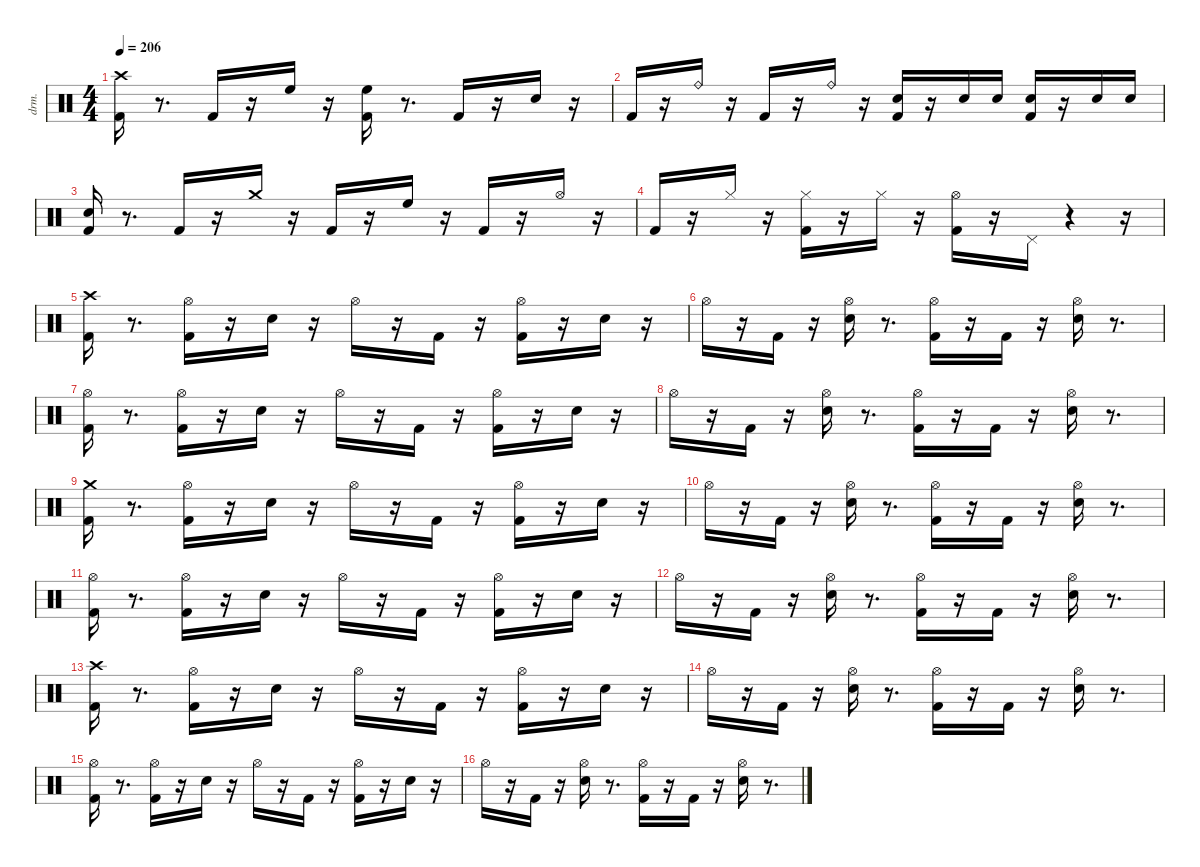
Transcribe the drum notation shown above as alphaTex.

\defaultSystemsLayout 4
\hideDynamics
\bracketExtendMode nobrackets
\otherSystemsTrackNameOrientation horizontal
\track ("EZdrummer 3" "drm.") {instrument percussion}
\staff {score}
\articulation defaults
\ts (4 4)
\tempo 206
\clef neutral
\ks aminor
("Kick (hit) 2" "Crash high (hit)"{acc #}).16{dy fff beam Down} r.8{d beam Down} "Kick (hit) 2".16{dy f beam Up} r.16{beam Up} "High Floor Tom (hit)".16{dy mp beam Down} r.16{beam Down} ("Kick (hit) 2" "High Floor Tom (hit)").16{dy fff beam Down} r.8{d beam Down} "Kick (hit) 2".16{dy f beam Up} r.16{beam Up} "Snare (hit) 2".16{dy ff beam Down} r.16{beam Down} |
"Kick (hit) 2".16{dy fff beam Up} r.16{beam Up} "Ride (bell)".16{dy mf beam Down} r.16{beam Down} "Kick (hit) 2".16{dy f beam Up} r.16{beam Up} "Ride (bell)".16{dy ff beam Down} r.16{beam Down} ("Kick (hit) 2" "Snare (hit) 2").16{dy fff beam Up} r.16{beam Up} "Snare (hit) 2".16{dy p beam Down} "Snare (hit) 2".16{dy pp beam Down} ("Kick (hit) 2" "Snare (hit) 2").16{dy f beam Up} r.16{beam Up} "Snare (hit) 2".16{dy mp beam Down} "Snare (hit) 2".16{dy p beam Down} |
("Kick (hit) 2" "Snare (hit) 2").16{dy fff beam Up} r.8{d beam Up} "Kick (hit) 2".16{dy f beam Up} r.16{beam Up} "Crash medium (hit)".16{dy ff beam Down} r.16{beam Down} "Kick (hit) 2".16{dy fff beam Up} r.16{beam Up} "High Floor Tom (hit)".16{dy ff beam Down} r.16{beam Down} "Kick (hit) 2".16{dy f beam Up} r.16{beam Up} "Hi-Hat (open)"{acc #}.16{dy ff beam Down} r.16{beam Down} |
"Kick (hit) 2".16{dy fff beam Up} r.16{beam Up} "Hi-Hat (closed)"{acc #}.16{dy mp beam Down} r.16{beam Down} ("Kick (hit) 2" "Hi-Hat (closed)"{acc #}).16{dy f beam Down} r.16{beam Down} "Hi-Hat (closed)"{acc #}.16{dy p beam Down} r.16{beam Down} ("Kick (hit) 2" "Hi-Hat (open)"{acc #}).16{dy fff beam Down} r.16{beam Down} "Pedal Hi-Hat (hit)"{acc #}.16{dy ff beam Up} r.4{beam Up} r.16{beam Up} |
("Kick (hit) 2" "Crash high (hit)"{acc #}).16{beam Down} r.8{d beam Down} ("Kick (hit) 2" "Hi-Hat (open)"{acc #}).16{beam Down} r.16{beam Down} "Snare (hit) 2".16{beam Down} r.16{beam Down} "Hi-Hat (open)"{acc #}.16{dy f beam Down} r.16{beam Down} "Kick (hit) 2".16{dy mf beam Up} r.16{beam Up} ("Kick (hit) 2" "Hi-Hat (open)"{acc #}).16{dy ff beam Down} r.16{beam Down} "Snare (hit) 2".16{beam Down} r.16{beam Down} |
"Hi-Hat (open)"{acc #}.16{dy fff beam Down} r.16{beam Down} "Kick (hit) 2".16{dy ff beam Up} r.16{beam Up} ("Snare (hit) 2" "Hi-Hat (open)"{acc #}).16{beam Down} r.8{d beam Down} ("Kick (hit) 2" "Hi-Hat (open)"{acc #}).16{dy mf beam Down} r.16{beam Down} "Kick (hit) 2".16{dy fff beam Up} r.16{beam Up} ("Snare (hit) 2" "Hi-Hat (open)"{acc #}).16{dy ff beam Down} r.8{d beam Down} |
("Kick (hit) 2" "Hi-Hat (open)"{acc #}).16{beam Down} r.8{d beam Down} ("Kick (hit) 2" "Hi-Hat (open)"{acc #}).16{beam Down} r.16{beam Down} "Snare (hit) 2".16{beam Down} r.16{beam Down} "Hi-Hat (open)"{acc #}.16{dy f beam Down} r.16{beam Down} "Kick (hit) 2".16{dy mf beam Up} r.16{beam Up} ("Kick (hit) 2" "Hi-Hat (open)"{acc #}).16{dy ff beam Down} r.16{beam Down} "Snare (hit) 2".16{beam Down} r.16{beam Down} |
"Hi-Hat (open)"{acc #}.16{dy fff beam Down} r.16{beam Down} "Kick (hit) 2".16{dy ff beam Up} r.16{beam Up} ("Snare (hit) 2" "Hi-Hat (open)"{acc #}).16{beam Down} r.8{d beam Down} ("Kick (hit) 2" "Hi-Hat (open)"{acc #}).16{dy mf beam Down} r.16{beam Down} "Kick (hit) 2".16{dy fff beam Up} r.16{beam Up} ("Snare (hit) 2" "Hi-Hat (open)"{acc #}).16{dy ff beam Down} r.8{d beam Down} |
("Kick (hit) 2" "Crash medium (hit)").16{beam Down} r.8{d beam Down} ("Kick (hit) 2" "Hi-Hat (open)"{acc #}).16{beam Down} r.16{beam Down} "Snare (hit) 2".16{beam Down} r.16{beam Down} "Hi-Hat (open)"{acc #}.16{dy f beam Down} r.16{beam Down} "Kick (hit) 2".16{dy mf beam Up} r.16{beam Up} ("Kick (hit) 2" "Hi-Hat (open)"{acc #}).16{dy ff beam Down} r.16{beam Down} "Snare (hit) 2".16{beam Down} r.16{beam Down} |
"Hi-Hat (open)"{acc #}.16{dy fff beam Down} r.16{beam Down} "Kick (hit) 2".16{dy ff beam Up} r.16{beam Up} ("Snare (hit) 2" "Hi-Hat (open)"{acc #}).16{beam Down} r.8{d beam Down} ("Kick (hit) 2" "Hi-Hat (open)"{acc #}).16{dy mf beam Down} r.16{beam Down} "Kick (hit) 2".16{dy fff beam Up} r.16{beam Up} ("Snare (hit) 2" "Hi-Hat (open)"{acc #}).16{dy ff beam Down} r.8{d beam Down} |
("Kick (hit) 2" "Hi-Hat (open)"{acc #}).16{beam Down} r.8{d beam Down} ("Kick (hit) 2" "Hi-Hat (open)"{acc #}).16{beam Down} r.16{beam Down} "Snare (hit) 2".16{beam Down} r.16{beam Down} "Hi-Hat (open)"{acc #}.16{dy f beam Down} r.16{beam Down} "Kick (hit) 2".16{dy mf beam Up} r.16{beam Up} ("Kick (hit) 2" "Hi-Hat (open)"{acc #}).16{dy ff beam Down} r.16{beam Down} "Snare (hit) 2".16{beam Down} r.16{beam Down} |
"Hi-Hat (open)"{acc #}.16{dy fff beam Down} r.16{beam Down} "Kick (hit) 2".16{dy ff beam Up} r.16{beam Up} ("Snare (hit) 2" "Hi-Hat (open)"{acc #}).16{beam Down} r.8{d beam Down} ("Kick (hit) 2" "Hi-Hat (open)"{acc #}).16{dy mf beam Down} r.16{beam Down} "Kick (hit) 2".16{dy fff beam Up} r.16{beam Up} ("Snare (hit) 2" "Hi-Hat (open)"{acc #}).16{dy ff beam Down} r.8{d beam Down} |
("Kick (hit) 2" "Crash high (hit)"{acc #}).16{beam Down} r.8{d beam Down} ("Kick (hit) 2" "Hi-Hat (open)"{acc #}).16{beam Down} r.16{beam Down} "Snare (hit) 2".16{beam Down} r.16{beam Down} "Hi-Hat (open)"{acc #}.16{dy f beam Down} r.16{beam Down} "Kick (hit) 2".16{dy mf beam Up} r.16{beam Up} ("Kick (hit) 2" "Hi-Hat (open)"{acc #}).16{dy ff beam Down} r.16{beam Down} "Snare (hit) 2".16{beam Down} r.16{beam Down} |
"Hi-Hat (open)"{acc #}.16{dy fff beam Down} r.16{beam Down} "Kick (hit) 2".16{dy ff beam Up} r.16{beam Up} ("Snare (hit) 2" "Hi-Hat (open)"{acc #}).16{beam Down} r.8{d beam Down} ("Kick (hit) 2" "Hi-Hat (open)"{acc #}).16{dy mf beam Down} r.16{beam Down} "Kick (hit) 2".16{dy fff beam Up} r.16{beam Up} ("Snare (hit) 2" "Hi-Hat (open)"{acc #}).16{dy ff beam Down} r.8{d beam Down} |
("Kick (hit) 2" "Hi-Hat (open)"{acc #}).16{beam Down} r.8{d beam Down} ("Kick (hit) 2" "Hi-Hat (open)"{acc #}).16{beam Down} r.16{beam Down} "Snare (hit) 2".16{beam Down} r.16{beam Down} "Hi-Hat (open)"{acc #}.16{dy f beam Down} r.16{beam Down} "Kick (hit) 2".16{dy mf beam Up} r.16{beam Up} ("Kick (hit) 2" "Hi-Hat (open)"{acc #}).16{dy ff beam Down} r.16{beam Down} "Snare (hit) 2".16{beam Down} r.16{beam Down} |
"Hi-Hat (open)"{acc #}.16{dy fff beam Down} r.16{beam Down} "Kick (hit) 2".16{dy ff beam Up} r.16{beam Up} ("Snare (hit) 2" "Hi-Hat (open)"{acc #}).16{beam Down} r.8{d beam Down} ("Kick (hit) 2" "Hi-Hat (open)"{acc #}).16{dy mf beam Down} r.16{beam Down} "Kick (hit) 2".16{dy fff beam Up} r.16{beam Up} ("Snare (hit) 2" "Hi-Hat (open)"{acc #}).16{dy ff beam Down} r.8{d beam Down}
